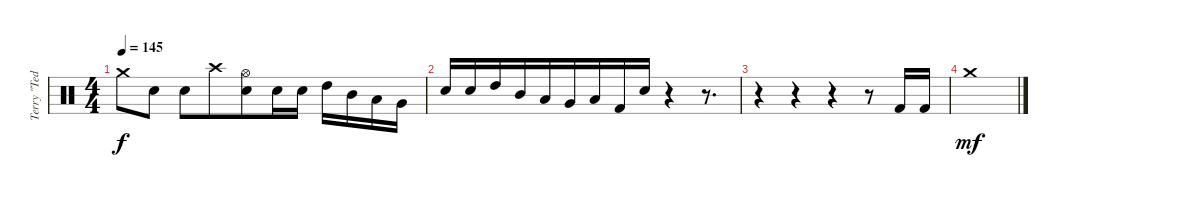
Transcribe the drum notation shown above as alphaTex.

\track ("Terry \"Ted\" Bozzio" "Terry \"Ted") {instrument percussion}
\staff {score}
\articulation defaults
\ts (4 4)
\tempo 145
\clef neutral
\ks c "Crash medium (hit)".8{dy f} "Electric Snare (hit)".8 "Electric Snare (hit)".8 "Crash high (hit)".8{beam merge}
("Hi-Hat (open)" "Electric Snare (hit)").8 "Electric Snare (hit)".16{beam merge} "Electric Snare (hit)".16 "High Tom (hit)".16 "Mid Tom (hit)".16 "Low Tom (hit)".16{beam merge} "Very Low Tom (hit)".16 |
"Electric Snare (hit)".16{beam merge} "Electric Snare (hit)".16 "High Tom (hit)".16{beam merge} "Mid Tom (hit)".16{beam merge} "Low Tom (hit)".16 "Very Low Tom (hit)".16 "Low Floor Tom (hit)".16 "Kick (hit) 2".16{beam merge} "Electric Snare (hit)".16{beam merge} r.4 r.8{d} |
r.4{beam merge} r.4 r.4 r.8 "Kick (hit) 2".16 "Kick (hit) 2".16 |
"Crash medium (hit)".1{dy mf}
